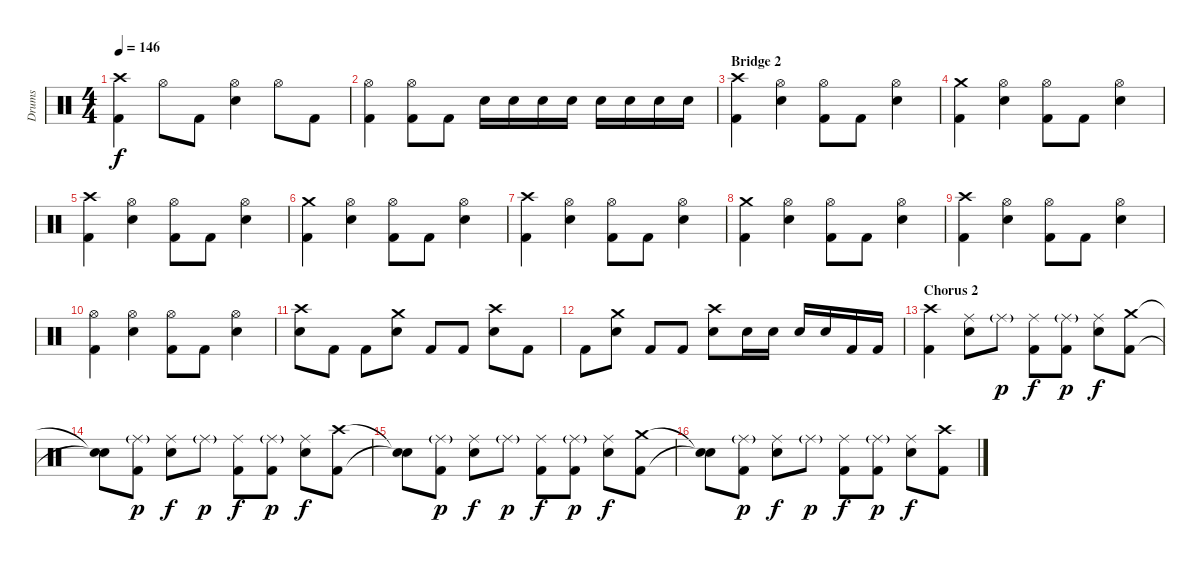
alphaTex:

\track ("Drums" "Drums") {instrument percussion}
\staff {score}
\articulation defaults
\ts (4 4)
\tempo 146
\clef neutral
\ks c
("Crash high (hit)" "Kick (hit) 2").4{dy f} "Hi-Hat (open)".8 "Kick (hit) 2".8 ("Hi-Hat (open)" "Snare (hit) 2").4 "Hi-Hat (open)".8 "Kick (hit) 2".8 |
("Hi-Hat (open)" "Kick (hit) 2").4 ("Hi-Hat (open)" "Kick (hit) 2").8 "Kick (hit) 2".8 "Snare (hit) 2".16 "Snare (hit) 2".16 "Snare (hit) 2".16 "Snare (hit) 2".16 "Snare (hit) 2".16 "Snare (hit) 2".16 "Snare (hit) 2".16 "Snare (hit) 2".16 |
\section ("" "Bridge 2")
("Crash high (hit)" "Kick (hit) 2").4 ("Hi-Hat (open)" "Snare (hit) 2").4 ("Hi-Hat (open)" "Kick (hit) 2").8 "Kick (hit) 2".8 ("Hi-Hat (open)" "Snare (hit) 2").4 |
("Crash medium (hit)" "Kick (hit) 2").4 ("Hi-Hat (open)" "Snare (hit) 2").4 ("Hi-Hat (open)" "Kick (hit) 2").8 "Kick (hit) 2".8 ("Hi-Hat (open)" "Snare (hit) 2").4 |
("Crash high (hit)" "Kick (hit) 2").4 ("Hi-Hat (open)" "Snare (hit) 2").4 ("Hi-Hat (open)" "Kick (hit) 2").8 "Kick (hit) 2".8 ("Hi-Hat (open)" "Snare (hit) 2").4 |
("Crash medium (hit)" "Kick (hit) 2").4 ("Hi-Hat (open)" "Snare (hit) 2").4 ("Hi-Hat (open)" "Kick (hit) 2").8 "Kick (hit) 2".8 ("Hi-Hat (open)" "Snare (hit) 2").4 |
("Crash high (hit)" "Kick (hit) 2").4 ("Hi-Hat (open)" "Snare (hit) 2").4 ("Hi-Hat (open)" "Kick (hit) 2").8 "Kick (hit) 2".8 ("Hi-Hat (open)" "Snare (hit) 2").4 |
("Crash medium (hit)" "Kick (hit) 2").4 ("Hi-Hat (open)" "Snare (hit) 2").4 ("Hi-Hat (open)" "Kick (hit) 2").8 "Kick (hit) 2".8 ("Hi-Hat (open)" "Snare (hit) 2").4 |
("Crash high (hit)" "Kick (hit) 2").4 ("Hi-Hat (open)" "Snare (hit) 2").4 ("Hi-Hat (open)" "Kick (hit) 2").8 "Kick (hit) 2".8 ("Hi-Hat (open)" "Snare (hit) 2").4 |
("Hi-Hat (open)" "Kick (hit) 2").4 ("Hi-Hat (open)" "Snare (hit) 2").4 ("Hi-Hat (open)" "Kick (hit) 2").8 "Kick (hit) 2".8 ("Hi-Hat (open)" "Snare (hit) 2").4 |
("Crash high (hit)" "Snare (hit) 2").8 "Kick (hit) 2".8 "Kick (hit) 2".8 ("Crash medium (hit)" "Snare (hit) 2").8 "Kick (hit) 2".8 "Kick (hit) 2".8 ("Crash high (hit)" "Snare (hit) 2").8 "Kick (hit) 2".8 |
"Kick (hit) 2".8 ("Crash medium (hit)" "Snare (hit) 2").8 "Kick (hit) 2".8 "Kick (hit) 2".8 ("Crash high (hit)" "Snare (hit) 2").8 "Snare (hit) 2".16 "Snare (hit) 2".16 "Snare (hit) 2".16 "Snare (hit) 2".16 "Kick (hit) 2".16 "Kick (hit) 2".16 |
\section ("" "Chorus 2")
("Crash high (hit)" "Kick (hit) 2").4 ("Ride (middle)" "Snare (hit) 2").8 "Ride (middle)"{g}.8{dy p} ("Ride (middle)" "Kick (hit) 2").8{dy f} ("Ride (middle)"{g} "Kick (hit) 2").8{dy p} ("Ride (middle)" "Snare (hit) 2").8{dy f} ("Crash medium (hit)" "Kick (hit) 2").8 |
("Snare (hit)"{t} "Snare (hit)"{t}).8 ("Ride (middle)"{g} "Kick (hit) 2").8{dy p} ("Ride (middle)" "Snare (hit) 2").8{dy f} "Ride (middle)"{g}.8{dy p} ("Ride (middle)" "Kick (hit) 2").8{dy f} ("Ride (middle)"{g} "Kick (hit) 2").8{dy p} ("Ride (middle)" "Snare (hit) 2").8{dy f} ("Crash high (hit)" "Kick (hit) 2").8 |
("Snare (hit)"{t} "Snare (hit)"{t}).8 ("Ride (middle)"{g} "Kick (hit) 2").8{dy p} ("Ride (middle)" "Snare (hit) 2").8{dy f} "Ride (middle)"{g}.8{dy p} ("Ride (middle)" "Kick (hit) 2").8{dy f} ("Ride (middle)"{g} "Kick (hit) 2").8{dy p} ("Ride (middle)" "Snare (hit) 2").8{dy f} ("Crash medium (hit)" "Kick (hit) 2").8 |
("Snare (hit)"{t} "Snare (hit)"{t}).8 ("Ride (middle)"{g} "Kick (hit) 2").8{dy p} ("Ride (middle)" "Snare (hit) 2").8{dy f} "Ride (middle)"{g}.8{dy p} ("Ride (middle)" "Kick (hit) 2").8{dy f} ("Ride (middle)"{g} "Kick (hit) 2").8{dy p} ("Ride (middle)" "Snare (hit) 2").8{dy f} ("Crash high (hit)" "Kick (hit) 2").8
